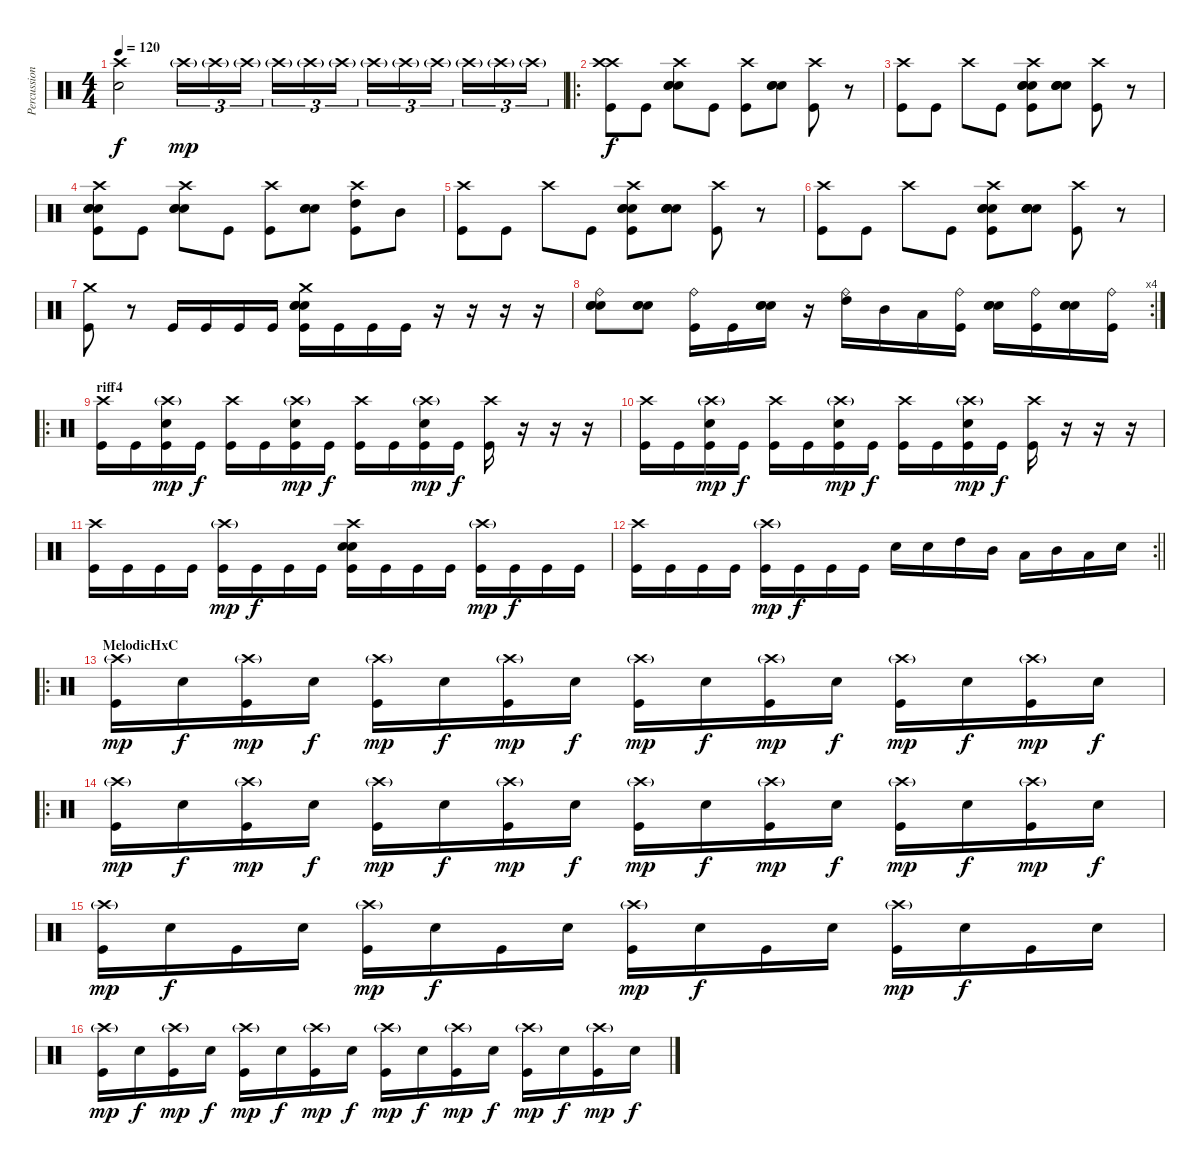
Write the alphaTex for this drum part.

\track ("Percussion" "Percussion") {instrument percussion}
\staff {score}
\articulation defaults
\ts (4 4)
\tempo 120
\clef neutral
\ks c
("Crash high (hit)" "Electric Snare (hit)").2{dy f} "Crash high (hit)"{g}.16{tu (3 2) dy mp} "Crash high (hit)"{g}.16{tu (3 2)} "Crash high (hit)"{g}.16{tu (3 2) beam splitsecondary} "Crash high (hit)"{g}.16{tu (3 2)} "Crash high (hit)"{g}.16{tu (3 2)} "Crash high (hit)"{g}.16{tu (3 2)} "Crash high (hit)"{g}.16{tu (3 2)} "Crash high (hit)"{g}.16{tu (3 2)} "Crash high (hit)"{g}.16{tu (3 2) beam splitsecondary} "Crash high (hit)"{g}.16{tu (3 2)} "Crash high (hit)"{g}.16{tu (3 2)} "Crash high (hit)"{g}.16{tu (3 2)} |
\ro
("Crash high (hit)" "Crash high (hit)" "Kick (hit)").8{dy f} "Kick (hit)".8 ("Crash high (hit)" "Electric Snare (hit)" "Electric Snare (hit)" "Electric Snare (hit)").8 "Kick (hit)".8 ("Crash high (hit)" "Kick (hit)").8 ("Electric Snare (hit)" "Electric Snare (hit)" "Electric Snare (hit)").8 ("Crash high (hit)" "Kick (hit)").8 r.8 |
("Crash high (hit)" "Kick (hit)").8 "Kick (hit)".8 "Crash high (hit)".8 "Kick (hit)".8 ("Crash high (hit)" "Electric Snare (hit)" "Electric Snare (hit)" "Electric Snare (hit)" "Kick (hit)").8 ("Electric Snare (hit)" "Electric Snare (hit)" "Electric Snare (hit)" "Electric Snare (hit)").8 ("Crash high (hit)" "Kick (hit)").8 r.8 |
("Crash high (hit)" "Electric Snare (hit)" "Electric Snare (hit)" "Electric Snare (hit)" "Kick (hit)").8 "Kick (hit)".8 ("Crash high (hit)" "Electric Snare (hit)" "Electric Snare (hit)" "Electric Snare (hit)").8 "Kick (hit)".8 ("Crash high (hit)" "Kick (hit)").8 ("Electric Snare (hit)" "Electric Snare (hit)" "Electric Snare (hit)").8 ("Crash high (hit)" "High Tom (hit)" "Kick (hit)").8 "Mid Tom (hit)".8 |
("Crash high (hit)" "Kick (hit)").8 "Kick (hit)".8 "Crash high (hit)".8 "Kick (hit)".8 ("Crash high (hit)" "Electric Snare (hit)" "Electric Snare (hit)" "Electric Snare (hit)" "Kick (hit)").8 ("Electric Snare (hit)" "Electric Snare (hit)" "Electric Snare (hit)" "Electric Snare (hit)").8 ("Crash high (hit)" "Kick (hit)").8 r.8 |
("Crash high (hit)" "Kick (hit)").8 "Kick (hit)".8 "Crash high (hit)".8 "Kick (hit)".8 ("Crash high (hit)" "Electric Snare (hit)" "Electric Snare (hit)" "Electric Snare (hit)" "Kick (hit)").8 ("Electric Snare (hit)" "Electric Snare (hit)" "Electric Snare (hit)" "Electric Snare (hit)").8 ("Crash high (hit)" "Kick (hit)").8 r.8 |
("Crash medium (hit)" "Kick (hit)").8 r.8 "Kick (hit)".16 "Kick (hit)".16 "Kick (hit)".16 "Kick (hit)".16 ("Crash medium (hit)" "Electric Snare (hit)" "Electric Snare (hit)" "Electric Snare (hit)" "Kick (hit)").16 "Kick (hit)".16 "Kick (hit)".16 "Kick (hit)".16 r.16 r.16 r.16 r.16 |
\rc 4
("Ride (bell)" "Electric Snare (hit)" "Electric Snare (hit)" "Electric Snare (hit)").8 ("Electric Snare (hit)" "Electric Snare (hit)" "Electric Snare (hit)").8 ("Ride (bell)" "Kick (hit)").16 "Kick (hit)".16 ("Electric Snare (hit)" "Electric Snare (hit)" "Electric Snare (hit)").16 r.16 ("Ride (bell)" "High Tom (hit)").16 "Mid Tom (hit)".16 "Low Tom (hit)".16 ("Ride (bell)" "Kick (hit)").16 ("Electric Snare (hit)" "Electric Snare (hit)" "Electric Snare (hit)").16 ("Ride (bell)" "Kick (hit)").16 ("Electric Snare (hit)" "Electric Snare (hit)" "Electric Snare (hit)").16 ("Ride (bell)" "Kick (hit)").16 |
\ro
\section ("" "riff4")
("Crash high (hit)" "Kick (hit)").16 "Kick (hit)".16 ("Crash high (hit)"{g} "Electric Snare (hit)" "Kick (hit)").16{dy mp} "Kick (hit)".16{dy f} ("Crash high (hit)" "Kick (hit)").16 "Kick (hit)".16 ("Crash high (hit)"{g} "Electric Snare (hit)" "Kick (hit)").16{dy mp} "Kick (hit)".16{dy f} ("Crash high (hit)" "Kick (hit)").16 "Kick (hit)".16 ("Crash high (hit)"{g} "Electric Snare (hit)" "Kick (hit)").16{dy mp} "Kick (hit)".16{dy f} ("Crash high (hit)" "Kick (hit)").16 r.16 r.16 r.16 |
("Crash high (hit)" "Kick (hit)").16 "Kick (hit)".16 ("Crash high (hit)"{g} "Electric Snare (hit)" "Kick (hit)").16{dy mp} "Kick (hit)".16{dy f} ("Crash high (hit)" "Kick (hit)").16 "Kick (hit)".16 ("Crash high (hit)"{g} "Electric Snare (hit)" "Kick (hit)").16{dy mp} "Kick (hit)".16{dy f} ("Crash high (hit)" "Kick (hit)").16 "Kick (hit)".16 ("Crash high (hit)"{g} "Electric Snare (hit)" "Kick (hit)").16{dy mp} "Kick (hit)".16{dy f} ("Crash high (hit)" "Kick (hit)").16 r.16 r.16 r.16 |
("Crash high (hit)" "Kick (hit)").16 "Kick (hit)".16 "Kick (hit)".16 "Kick (hit)".16 ("Crash high (hit)"{g} "Kick (hit)").16{dy mp} "Kick (hit)".16{dy f} "Kick (hit)".16 "Kick (hit)".16 ("Crash high (hit)" "Electric Snare (hit)" "Electric Snare (hit)" "Kick (hit)").16 "Kick (hit)".16 "Kick (hit)".16 "Kick (hit)".16 ("Crash high (hit)"{g} "Kick (hit)").16{dy mp} "Kick (hit)".16{dy f} "Kick (hit)".16 "Kick (hit)".16 |
\rc 2
\barLineRight lightlight
("Crash high (hit)" "Kick (hit)").16 "Kick (hit)".16 "Kick (hit)".16 "Kick (hit)".16 ("Crash high (hit)"{g} "Kick (hit)").16{dy mp} "Kick (hit)".16{dy f} "Kick (hit)".16 "Kick (hit)".16 "Electric Snare (hit)".16 "Electric Snare (hit)".16 "High Tom (hit)".16 "Mid Tom (hit)".16 "Low Tom (hit)".16 "Mid Tom (hit)".16 "Low Tom (hit)".16 "Electric Snare (hit)".16 |
\ro
\section ("" "MelodicHxC")
("Crash high (hit)"{g} "Kick (hit)").16{dy mp} "Electric Snare (hit)".16{dy f} ("Crash high (hit)"{g} "Kick (hit)").16{dy mp} "Electric Snare (hit)".16{dy f} ("Crash high (hit)"{g} "Kick (hit)").16{dy mp} "Electric Snare (hit)".16{dy f} ("Crash high (hit)"{g} "Kick (hit)").16{dy mp} "Electric Snare (hit)".16{dy f} ("Crash high (hit)"{g} "Kick (hit)").16{dy mp} "Electric Snare (hit)".16{dy f} ("Crash high (hit)"{g} "Kick (hit)").16{dy mp} "Electric Snare (hit)".16{dy f} ("Crash high (hit)"{g} "Kick (hit)").16{dy mp} "Electric Snare (hit)".16{dy f} ("Crash high (hit)"{g} "Kick (hit)").16{dy mp} "Electric Snare (hit)".16{dy f} |
\ro
("Crash high (hit)"{g} "Kick (hit)").16{dy mp} "Electric Snare (hit)".16{dy f} ("Crash high (hit)"{g} "Kick (hit)").16{dy mp} "Electric Snare (hit)".16{dy f} ("Crash high (hit)"{g} "Kick (hit)").16{dy mp} "Electric Snare (hit)".16{dy f} ("Crash high (hit)"{g} "Kick (hit)").16{dy mp} "Electric Snare (hit)".16{dy f} ("Crash high (hit)"{g} "Kick (hit)").16{dy mp} "Electric Snare (hit)".16{dy f} ("Crash high (hit)"{g} "Kick (hit)").16{dy mp} "Electric Snare (hit)".16{dy f} ("Crash high (hit)"{g} "Kick (hit)").16{dy mp} "Electric Snare (hit)".16{dy f} ("Crash high (hit)"{g} "Kick (hit)").16{dy mp} "Electric Snare (hit)".16{dy f} |
("Crash high (hit)"{g} "Kick (hit)").16{dy mp} "Electric Snare (hit)".16{dy f} "Kick (hit)".16 "Electric Snare (hit)".16 ("Crash high (hit)"{g} "Kick (hit)").16{dy mp} "Electric Snare (hit)".16{dy f} "Kick (hit)".16 "Electric Snare (hit)".16 ("Crash high (hit)"{g} "Kick (hit)").16{dy mp} "Electric Snare (hit)".16{dy f} "Kick (hit)".16 "Electric Snare (hit)".16 ("Crash high (hit)"{g} "Kick (hit)").16{dy mp} "Electric Snare (hit)".16{dy f} "Kick (hit)".16 "Electric Snare (hit)".16 |
("Crash high (hit)"{g} "Kick (hit)").16{dy mp} "Electric Snare (hit)".16{dy f} ("Crash high (hit)"{g} "Kick (hit)").16{dy mp} "Electric Snare (hit)".16{dy f} ("Crash high (hit)"{g} "Kick (hit)").16{dy mp} "Electric Snare (hit)".16{dy f} ("Crash high (hit)"{g} "Kick (hit)").16{dy mp} "Electric Snare (hit)".16{dy f} ("Crash high (hit)"{g} "Kick (hit)").16{dy mp} "Electric Snare (hit)".16{dy f} ("Crash high (hit)"{g} "Kick (hit)").16{dy mp} "Electric Snare (hit)".16{dy f} ("Crash high (hit)"{g} "Kick (hit)").16{dy mp} "Electric Snare (hit)".16{dy f} ("Crash high (hit)"{g} "Kick (hit)").16{dy mp} "Electric Snare (hit)".16{dy f}
